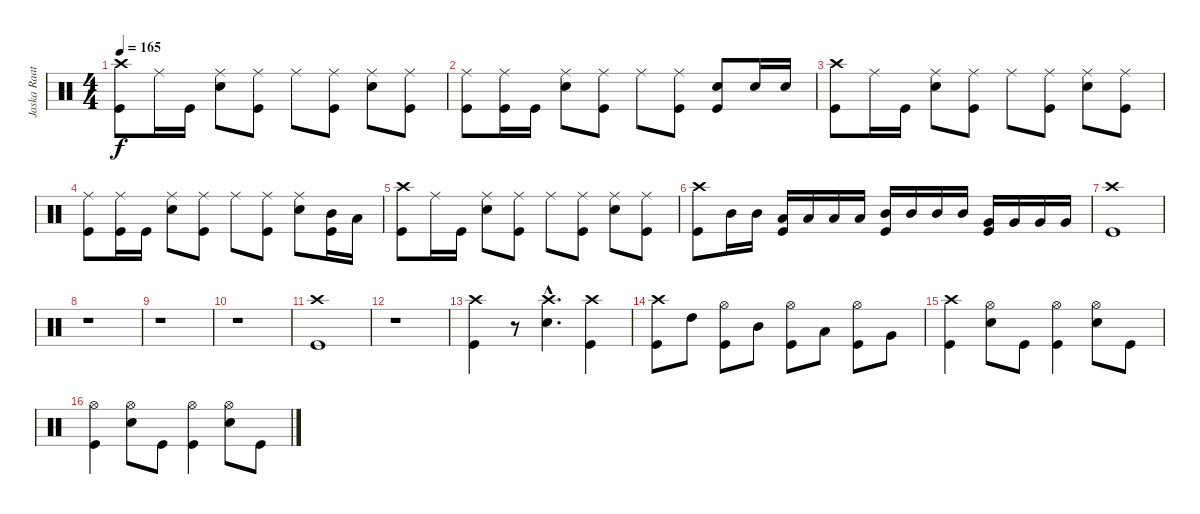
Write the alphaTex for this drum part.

\track ("Jaska Raatikainen" "Jaska Raat") {instrument percussion}
\staff {score}
\articulation defaults
\ts (4 4)
\tempo 165
\clef neutral
\ks c
("Crash high (hit)" "Kick (hit)").8{dy f} "Ride (middle)".16 "Kick (hit)".16 ("Ride (middle)" "Electric Snare (hit)").8 ("Ride (middle)" "Kick (hit)").8 "Ride (middle)".8 ("Ride (middle)" "Kick (hit)").8 ("Ride (middle)" "Electric Snare (hit)").8 ("Ride (middle)" "Kick (hit)").8 |
("Ride (middle)" "Kick (hit)").8 ("Ride (middle)" "Kick (hit)").16 "Kick (hit)".16 ("Ride (middle)" "Electric Snare (hit)").8 ("Ride (middle)" "Kick (hit)").8 "Ride (middle)".8 ("Ride (middle)" "Kick (hit)").8 ("Electric Snare (hit)" "Kick (hit)").8 "Electric Snare (hit)".16 "Electric Snare (hit)".16 |
("Crash high (hit)" "Kick (hit)").8 "Ride (middle)".16 "Kick (hit)".16 ("Ride (middle)" "Electric Snare (hit)").8 ("Ride (middle)" "Kick (hit)").8 "Ride (middle)".8 ("Ride (middle)" "Kick (hit)").8 ("Ride (middle)" "Electric Snare (hit)").8 ("Ride (middle)" "Kick (hit)").8 |
("Ride (middle)" "Kick (hit)").8 ("Ride (middle)" "Kick (hit)").16 "Kick (hit)".16 ("Ride (middle)" "Electric Snare (hit)").8 ("Ride (middle)" "Kick (hit)").8 "Ride (middle)".8 ("Ride (middle)" "Kick (hit)").8 ("Ride (middle)" "Electric Snare (hit)").8 ("Mid Tom (hit)" "Kick (hit)").16 "Low Tom (hit)".16 |
("Crash high (hit)" "Kick (hit)").8 "Ride (middle)".16 "Kick (hit)".16 ("Ride (middle)" "Electric Snare (hit)").8 ("Ride (middle)" "Kick (hit)").8 "Ride (middle)".8 ("Ride (middle)" "Kick (hit)").8 ("Ride (middle)" "Electric Snare (hit)").8 ("Ride (middle)" "Kick (hit)").8 |
("Crash high (hit)" "Kick (hit)").8 "Mid Tom (hit)".16 "Mid Tom (hit)".16 ("Low Tom (hit)" "Kick (hit)").16 "Low Tom (hit)".16 "Low Tom (hit)".16 "Low Tom (hit)".16 ("Mid Tom (hit)" "Kick (hit)").16 "Mid Tom (hit)".16 "Mid Tom (hit)".16 "Mid Tom (hit)".16 ("Very Low Tom (hit)" "Kick (hit)").16 "Very Low Tom (hit)".16 "Very Low Tom (hit)".16 "Very Low Tom (hit)".16 |
("Crash high (hit)" "Kick (hit)").1 |
r.1 |
r.1 |
r.1 |
("Crash high (hit)" "Kick (hit)").1 |
r.1 |
("Crash high (hit)" "Kick (hit)").4 r.8 ("Crash high (hit)"{hac} "Electric Snare (hit)"{hac}).4{d} ("Crash high (hit)" "Kick (hit)").4 |
("Crash high (hit)" "Kick (hit)").8 "High Tom (hit)".8 ("Hi-Hat (open)" "Kick (hit)").8 "Mid Tom (hit)".8 ("Hi-Hat (open)" "Kick (hit)").8 "Low Tom (hit)".8 ("Hi-Hat (open)" "Kick (hit)").8 "Very Low Tom (hit)".8 |
("Crash high (hit)" "Kick (hit)").4 ("Hi-Hat (open)" "Electric Snare (hit)").8 "Kick (hit)".8 ("Hi-Hat (open)" "Kick (hit)").4 ("Hi-Hat (open)" "Electric Snare (hit)").8 "Kick (hit)".8 |
("Hi-Hat (open)" "Kick (hit)").4 ("Hi-Hat (open)" "Electric Snare (hit)").8 "Kick (hit)".8 ("Hi-Hat (open)" "Kick (hit)").4 ("Hi-Hat (open)" "Electric Snare (hit)").8 "Kick (hit)".8
